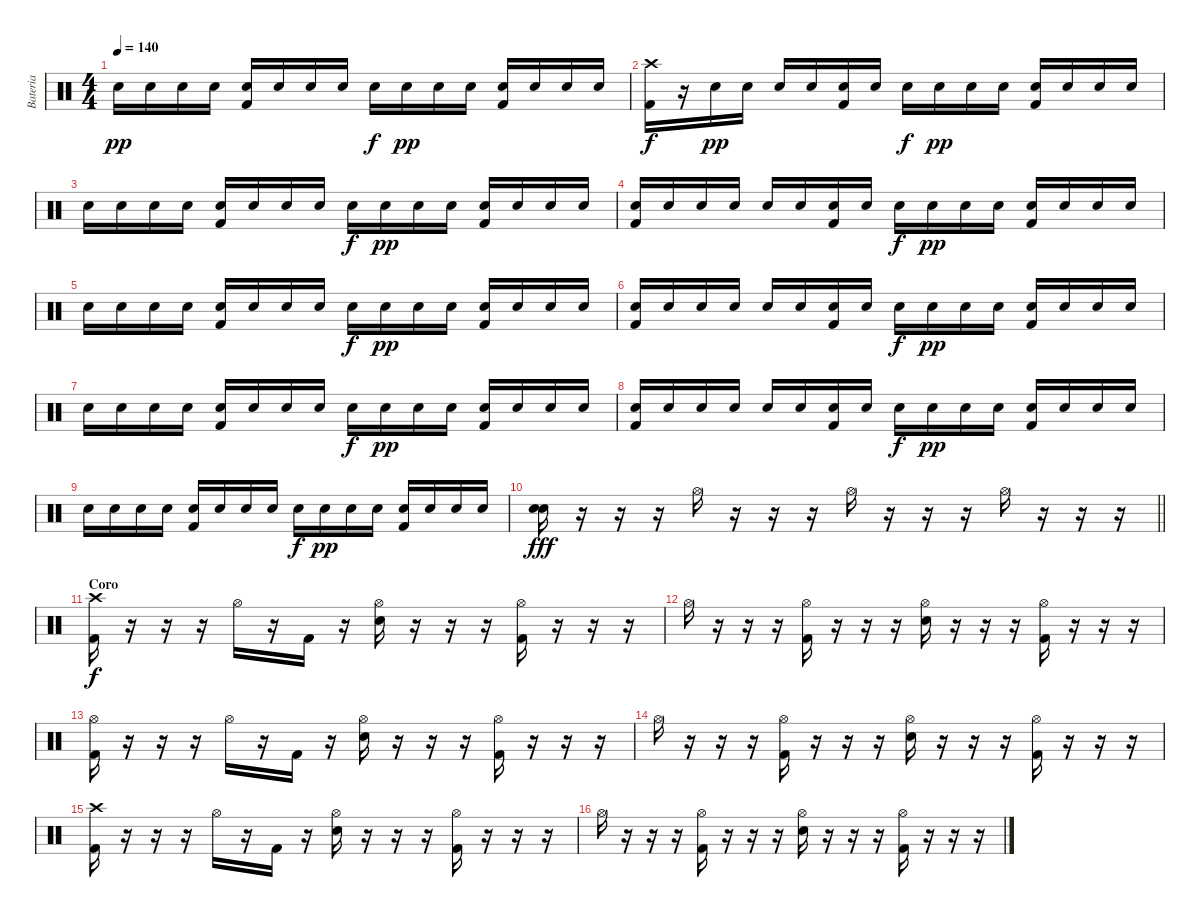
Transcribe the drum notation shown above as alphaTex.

\track ("Bateria" "Bateria") {instrument percussion}
\staff {score}
\articulation defaults
\ts (4 4)
\tempo 140
\clef neutral
\ks c "Snare (hit) 2".16{dy pp} "Snare (hit) 2".16 "Snare (hit) 2".16 "Snare (hit) 2".16
("Snare (hit) 2" "Kick (hit) 2").16 "Snare (hit) 2".16 "Snare (hit) 2".16 "Snare (hit) 2".16 "Snare (hit) 2".16{dy f} "Snare (hit) 2".16{dy pp} "Snare (hit) 2".16 "Snare (hit) 2".16 ("Snare (hit) 2" "Kick (hit) 2").16 "Snare (hit) 2".16 "Snare (hit) 2".16 "Snare (hit) 2".16 |
("Crash high (hit)" "Kick (hit) 2").16{dy f} r.16 "Snare (hit) 2".16{dy pp} "Snare (hit) 2".16 "Snare (hit) 2".16 "Snare (hit) 2".16 ("Snare (hit) 2" "Kick (hit) 2").16 "Snare (hit) 2".16 "Snare (hit) 2".16{dy f} "Snare (hit) 2".16{dy pp} "Snare (hit) 2".16 "Snare (hit) 2".16 ("Snare (hit) 2" "Kick (hit) 2").16 "Snare (hit) 2".16 "Snare (hit) 2".16 "Snare (hit) 2".16 |
"Snare (hit) 2".16 "Snare (hit) 2".16 "Snare (hit) 2".16 "Snare (hit) 2".16 ("Snare (hit) 2" "Kick (hit) 2").16 "Snare (hit) 2".16 "Snare (hit) 2".16 "Snare (hit) 2".16 "Snare (hit) 2".16{dy f} "Snare (hit) 2".16{dy pp} "Snare (hit) 2".16 "Snare (hit) 2".16 ("Snare (hit) 2" "Kick (hit) 2").16 "Snare (hit) 2".16 "Snare (hit) 2".16 "Snare (hit) 2".16 |
("Snare (hit) 2" "Kick (hit) 2").16 "Snare (hit) 2".16 "Snare (hit) 2".16 "Snare (hit) 2".16 "Snare (hit) 2".16 "Snare (hit) 2".16 ("Snare (hit) 2" "Kick (hit) 2").16 "Snare (hit) 2".16 "Snare (hit) 2".16{dy f} "Snare (hit) 2".16{dy pp} "Snare (hit) 2".16 "Snare (hit) 2".16 ("Snare (hit) 2" "Kick (hit) 2").16 "Snare (hit) 2".16 "Snare (hit) 2".16 "Snare (hit) 2".16 |
"Snare (hit) 2".16 "Snare (hit) 2".16 "Snare (hit) 2".16 "Snare (hit) 2".16 ("Snare (hit) 2" "Kick (hit) 2").16 "Snare (hit) 2".16 "Snare (hit) 2".16 "Snare (hit) 2".16 "Snare (hit) 2".16{dy f} "Snare (hit) 2".16{dy pp} "Snare (hit) 2".16 "Snare (hit) 2".16 ("Snare (hit) 2" "Kick (hit) 2").16 "Snare (hit) 2".16 "Snare (hit) 2".16 "Snare (hit) 2".16 |
("Snare (hit) 2" "Kick (hit) 2").16 "Snare (hit) 2".16 "Snare (hit) 2".16 "Snare (hit) 2".16 "Snare (hit) 2".16 "Snare (hit) 2".16 ("Snare (hit) 2" "Kick (hit) 2").16 "Snare (hit) 2".16 "Snare (hit) 2".16{dy f} "Snare (hit) 2".16{dy pp} "Snare (hit) 2".16 "Snare (hit) 2".16 ("Snare (hit) 2" "Kick (hit) 2").16 "Snare (hit) 2".16 "Snare (hit) 2".16 "Snare (hit) 2".16 |
"Snare (hit) 2".16 "Snare (hit) 2".16 "Snare (hit) 2".16 "Snare (hit) 2".16 ("Snare (hit) 2" "Kick (hit) 2").16 "Snare (hit) 2".16 "Snare (hit) 2".16 "Snare (hit) 2".16 "Snare (hit) 2".16{dy f} "Snare (hit) 2".16{dy pp} "Snare (hit) 2".16 "Snare (hit) 2".16 ("Snare (hit) 2" "Kick (hit) 2").16 "Snare (hit) 2".16 "Snare (hit) 2".16 "Snare (hit) 2".16 |
("Snare (hit) 2" "Kick (hit) 2").16 "Snare (hit) 2".16 "Snare (hit) 2".16 "Snare (hit) 2".16 "Snare (hit) 2".16 "Snare (hit) 2".16 ("Snare (hit) 2" "Kick (hit) 2").16 "Snare (hit) 2".16 "Snare (hit) 2".16{dy f} "Snare (hit) 2".16{dy pp} "Snare (hit) 2".16 "Snare (hit) 2".16 ("Snare (hit) 2" "Kick (hit) 2").16 "Snare (hit) 2".16 "Snare (hit) 2".16 "Snare (hit) 2".16 |
"Snare (hit) 2".16 "Snare (hit) 2".16 "Snare (hit) 2".16 "Snare (hit) 2".16 ("Snare (hit) 2" "Kick (hit) 2").16 "Snare (hit) 2".16 "Snare (hit) 2".16 "Snare (hit) 2".16 "Snare (hit) 2".16{dy f} "Snare (hit) 2".16{dy pp} "Snare (hit) 2".16 "Snare (hit) 2".16 ("Snare (hit) 2" "Kick (hit) 2").16 "Snare (hit) 2".16 "Snare (hit) 2".16 "Snare (hit) 2".16 |
\barLineRight lightlight
("Electric Snare (hit)" "Snare (hit) 2").16{dy fff} r.16 r.16 r.16 "Hi-Hat (open)".16 r.16 r.16 r.16 "Hi-Hat (open)".16 r.16 r.16 r.16 "Hi-Hat (open)".16 r.16 r.16 r.16 |
\section ("" "Coro")
("Crash high (hit)" "Kick (hit) 2").16{dy f} r.16 r.16 r.16 "Hi-Hat (open)".16 r.16 "Kick (hit) 2".16 r.16 ("Hi-Hat (open)" "Snare (hit) 2").16 r.16 r.16 r.16 ("Hi-Hat (open)" "Kick (hit) 2").16 r.16 r.16 r.16 |
"Hi-Hat (open)".16 r.16 r.16 r.16 ("Hi-Hat (open)" "Kick (hit) 2").16 r.16 r.16 r.16 ("Hi-Hat (open)" "Snare (hit) 2").16 r.16 r.16 r.16 ("Hi-Hat (open)" "Kick (hit) 2").16 r.16 r.16 r.16 |
("Hi-Hat (open)" "Kick (hit) 2").16 r.16 r.16 r.16 "Hi-Hat (open)".16 r.16 "Kick (hit) 2".16 r.16 ("Hi-Hat (open)" "Snare (hit) 2").16 r.16 r.16 r.16 ("Hi-Hat (open)" "Kick (hit) 2").16 r.16 r.16 r.16 |
"Hi-Hat (open)".16 r.16 r.16 r.16 ("Hi-Hat (open)" "Kick (hit) 2").16 r.16 r.16 r.16 ("Hi-Hat (open)" "Snare (hit) 2").16 r.16 r.16 r.16 ("Hi-Hat (open)" "Kick (hit) 2").16 r.16 r.16 r.16 |
("Crash high (hit)" "Kick (hit) 2").16 r.16 r.16 r.16 "Hi-Hat (open)".16 r.16 "Kick (hit) 2".16 r.16 ("Hi-Hat (open)" "Snare (hit) 2").16 r.16 r.16 r.16 ("Hi-Hat (open)" "Kick (hit) 2").16 r.16 r.16 r.16 |
"Hi-Hat (open)".16 r.16 r.16 r.16 ("Hi-Hat (open)" "Kick (hit) 2").16 r.16 r.16 r.16 ("Hi-Hat (open)" "Snare (hit) 2").16 r.16 r.16 r.16 ("Hi-Hat (open)" "Kick (hit) 2").16 r.16 r.16 r.16
